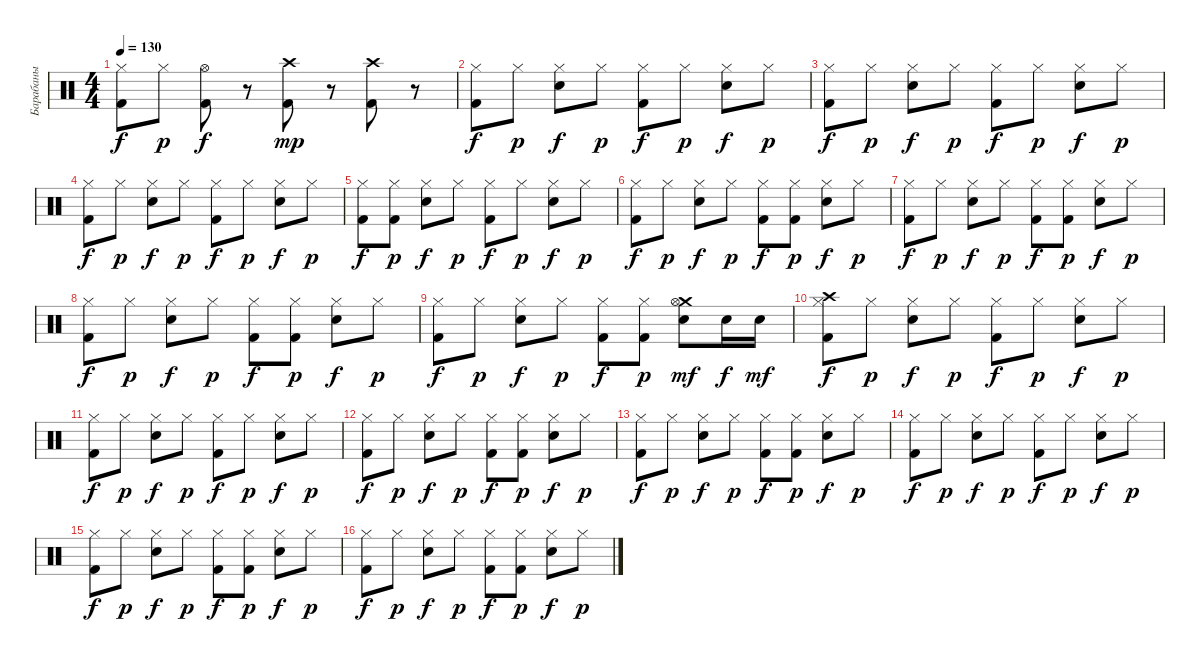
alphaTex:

\track ("Барабаны" "Барабаны") {instrument percussion}
\staff {score}
\articulation defaults
\ts (4 4)
\tempo 130
\clef neutral
\ks c
("Hi-Hat (closed)" "Kick (hit) 2").8{dy f} "Hi-Hat (closed)".8{dy p} ("Hi-Hat (open)" "Kick (hit) 2").8{dy f} r.8 ("Crash high (hit)" "Kick (hit) 2").8{dy mp} r.8 ("Crash high (hit)" "Kick (hit) 2").8 r.8 |
("Hi-Hat (closed)" "Kick (hit) 2").8{dy f} "Hi-Hat (closed)".8{dy p} ("Snare (hit) 2" "Hi-Hat (closed)").8{dy f} "Hi-Hat (closed)".8{dy p} ("Hi-Hat (closed)" "Kick (hit) 2").8{dy f} "Hi-Hat (closed)".8{dy p} ("Snare (hit) 2" "Hi-Hat (closed)").8{dy f} "Hi-Hat (closed)".8{dy p} |
("Hi-Hat (closed)" "Kick (hit) 2").8{dy f} "Hi-Hat (closed)".8{dy p} ("Snare (hit) 2" "Hi-Hat (closed)").8{dy f} "Hi-Hat (closed)".8{dy p} ("Hi-Hat (closed)" "Kick (hit) 2").8{dy f} "Hi-Hat (closed)".8{dy p} ("Snare (hit) 2" "Hi-Hat (closed)").8{dy f} "Hi-Hat (closed)".8{dy p} |
("Hi-Hat (closed)" "Kick (hit) 2").8{dy f} "Hi-Hat (closed)".8{dy p} ("Snare (hit) 2" "Hi-Hat (closed)").8{dy f} "Hi-Hat (closed)".8{dy p} ("Hi-Hat (closed)" "Kick (hit) 2").8{dy f} "Hi-Hat (closed)".8{dy p} ("Snare (hit) 2" "Hi-Hat (closed)").8{dy f} "Hi-Hat (closed)".8{dy p} |
("Hi-Hat (closed)" "Kick (hit) 2").8{dy f} ("Kick (hit) 2" "Hi-Hat (closed)").8{dy p} ("Snare (hit) 2" "Hi-Hat (closed)").8{dy f} "Hi-Hat (closed)".8{dy p} ("Hi-Hat (closed)" "Kick (hit) 2").8{dy f} "Hi-Hat (closed)".8{dy p} ("Snare (hit) 2" "Hi-Hat (closed)").8{dy f} "Hi-Hat (closed)".8{dy p} |
("Hi-Hat (closed)" "Kick (hit) 2").8{dy f} "Hi-Hat (closed)".8{dy p} ("Snare (hit) 2" "Hi-Hat (closed)").8{dy f} "Hi-Hat (closed)".8{dy p} ("Hi-Hat (closed)" "Kick (hit) 2").8{dy f} ("Kick (hit) 2" "Hi-Hat (closed)").8{dy p} ("Snare (hit) 2" "Hi-Hat (closed)").8{dy f} "Hi-Hat (closed)".8{dy p} |
("Hi-Hat (closed)" "Kick (hit) 2").8{dy f} "Hi-Hat (closed)".8{dy p} ("Snare (hit) 2" "Hi-Hat (closed)").8{dy f} "Hi-Hat (closed)".8{dy p} ("Hi-Hat (closed)" "Kick (hit) 2").8{dy f} ("Kick (hit) 2" "Hi-Hat (closed)").8{dy p} ("Snare (hit) 2" "Hi-Hat (closed)").8{dy f} "Hi-Hat (closed)".8{dy p} |
("Hi-Hat (closed)" "Kick (hit) 2").8{dy f} "Hi-Hat (closed)".8{dy p} ("Snare (hit) 2" "Hi-Hat (closed)").8{dy f} "Hi-Hat (closed)".8{dy p} ("Hi-Hat (closed)" "Kick (hit) 2").8{dy f} ("Kick (hit) 2" "Hi-Hat (closed)").8{dy p} ("Snare (hit) 2" "Hi-Hat (closed)").8{dy f} "Hi-Hat (closed)".8{dy p} |
("Hi-Hat (closed)" "Kick (hit) 2").8{dy f} "Hi-Hat (closed)".8{dy p} ("Snare (hit) 2" "Hi-Hat (closed)").8{dy f} "Hi-Hat (closed)".8{dy p} ("Hi-Hat (closed)" "Kick (hit) 2").8{dy f} ("Kick (hit) 2" "Hi-Hat (closed)").8{dy p} ("Crash medium (hit)" "Snare (hit) 2" "Hi-Hat (open)").8{dy mf} "Snare (hit) 2".16{dy f} "Snare (hit) 2".16{dy mf} |
("Crash high (hit)" "Hi-Hat (closed)" "Kick (hit) 2").8{dy f} "Hi-Hat (closed)".8{dy p} ("Snare (hit) 2" "Hi-Hat (closed)").8{dy f} "Hi-Hat (closed)".8{dy p} ("Hi-Hat (closed)" "Kick (hit) 2").8{dy f} "Hi-Hat (closed)".8{dy p} ("Snare (hit) 2" "Hi-Hat (closed)").8{dy f} "Hi-Hat (closed)".8{dy p} |
("Hi-Hat (closed)" "Kick (hit) 2").8{dy f} "Hi-Hat (closed)".8{dy p} ("Snare (hit) 2" "Hi-Hat (closed)").8{dy f} "Hi-Hat (closed)".8{dy p} ("Hi-Hat (closed)" "Kick (hit) 2").8{dy f} "Hi-Hat (closed)".8{dy p} ("Snare (hit) 2" "Hi-Hat (closed)").8{dy f} "Hi-Hat (closed)".8{dy p} |
("Hi-Hat (closed)" "Kick (hit) 2").8{dy f} "Hi-Hat (closed)".8{dy p} ("Snare (hit) 2" "Hi-Hat (closed)").8{dy f} "Hi-Hat (closed)".8{dy p} ("Hi-Hat (closed)" "Kick (hit) 2").8{dy f} ("Kick (hit) 2" "Hi-Hat (closed)").8{dy p} ("Snare (hit) 2" "Hi-Hat (closed)").8{dy f} "Hi-Hat (closed)".8{dy p} |
("Hi-Hat (closed)" "Kick (hit) 2").8{dy f} "Hi-Hat (closed)".8{dy p} ("Snare (hit) 2" "Hi-Hat (closed)").8{dy f} "Hi-Hat (closed)".8{dy p} ("Hi-Hat (closed)" "Kick (hit) 2").8{dy f} ("Kick (hit) 2" "Hi-Hat (closed)").8{dy p} ("Snare (hit) 2" "Hi-Hat (closed)").8{dy f} "Hi-Hat (closed)".8{dy p} |
("Hi-Hat (closed)" "Kick (hit) 2").8{dy f} "Hi-Hat (closed)".8{dy p} ("Snare (hit) 2" "Hi-Hat (closed)").8{dy f} "Hi-Hat (closed)".8{dy p} ("Hi-Hat (closed)" "Kick (hit) 2").8{dy f} "Hi-Hat (closed)".8{dy p} ("Snare (hit) 2" "Hi-Hat (closed)").8{dy f} "Hi-Hat (closed)".8{dy p} |
("Hi-Hat (closed)" "Kick (hit) 2").8{dy f} "Hi-Hat (closed)".8{dy p} ("Snare (hit) 2" "Hi-Hat (closed)").8{dy f} "Hi-Hat (closed)".8{dy p} ("Hi-Hat (closed)" "Kick (hit) 2").8{dy f} ("Kick (hit) 2" "Hi-Hat (closed)").8{dy p} ("Snare (hit) 2" "Hi-Hat (closed)").8{dy f} "Hi-Hat (closed)".8{dy p} |
("Hi-Hat (closed)" "Kick (hit) 2").8{dy f} "Hi-Hat (closed)".8{dy p} ("Snare (hit) 2" "Hi-Hat (closed)").8{dy f} "Hi-Hat (closed)".8{dy p} ("Hi-Hat (closed)" "Kick (hit) 2").8{dy f} ("Kick (hit) 2" "Hi-Hat (closed)").8{dy p} ("Snare (hit) 2" "Hi-Hat (closed)").8{dy f} "Hi-Hat (closed)".8{dy p}
